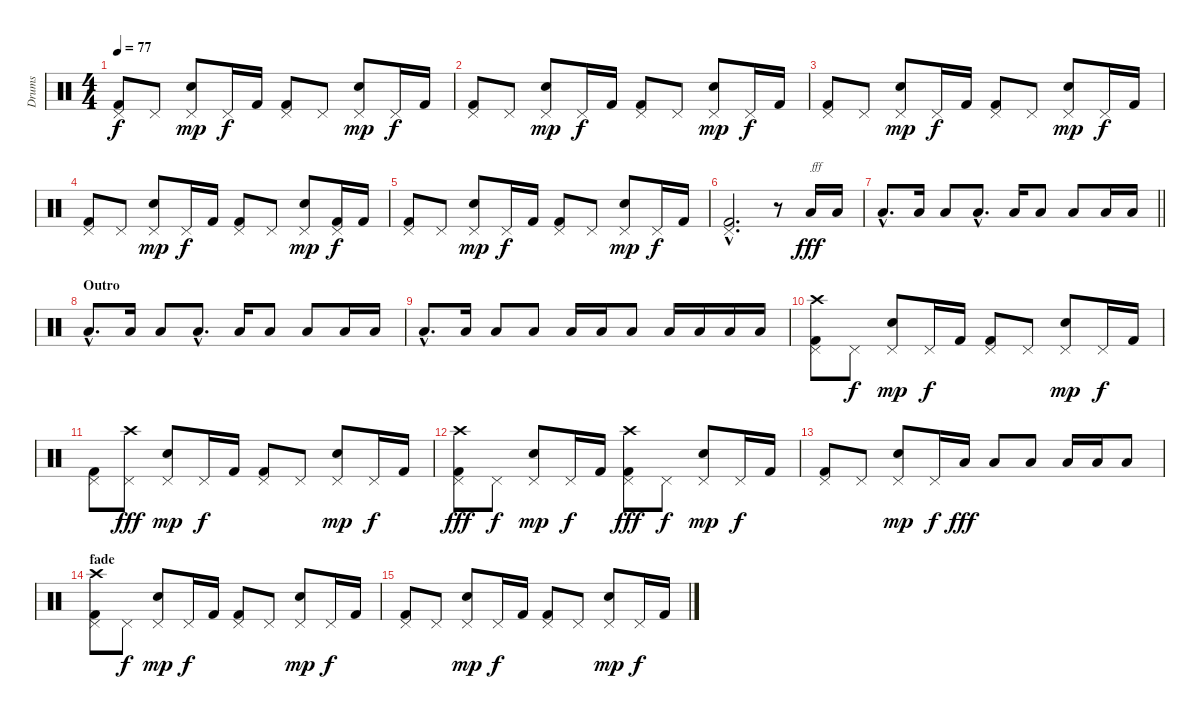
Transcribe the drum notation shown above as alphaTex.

\track ("Drums" "Drums") {instrument percussion}
\staff {score}
\articulation defaults
\ts (4 4)
\tempo 77
\clef neutral
\ks c
("Pedal Hi-Hat (hit)" "Kick (hit) 2").8{dy f} "Pedal Hi-Hat (hit)".8 ("Pedal Hi-Hat (hit)" "Snare (hit) 2").8{dy mp} "Pedal Hi-Hat (hit)".16{dy f} "Kick (hit) 2".16 ("Pedal Hi-Hat (hit)" "Kick (hit) 2").8 "Pedal Hi-Hat (hit)".8 ("Pedal Hi-Hat (hit)" "Snare (hit) 2").8{dy mp} "Pedal Hi-Hat (hit)".16{dy f} "Kick (hit) 2".16 |
("Pedal Hi-Hat (hit)" "Kick (hit) 2").8 "Pedal Hi-Hat (hit)".8 ("Pedal Hi-Hat (hit)" "Snare (hit) 2").8{dy mp} "Pedal Hi-Hat (hit)".16{dy f} "Kick (hit) 2".16 ("Pedal Hi-Hat (hit)" "Kick (hit) 2").8 "Pedal Hi-Hat (hit)".8 ("Pedal Hi-Hat (hit)" "Snare (hit) 2").8{dy mp} "Pedal Hi-Hat (hit)".16{dy f} "Kick (hit) 2".16 |
("Pedal Hi-Hat (hit)" "Kick (hit) 2").8 "Pedal Hi-Hat (hit)".8 ("Pedal Hi-Hat (hit)" "Snare (hit) 2").8{dy mp} "Pedal Hi-Hat (hit)".16{dy f} "Kick (hit) 2".16 ("Pedal Hi-Hat (hit)" "Kick (hit) 2").8 "Pedal Hi-Hat (hit)".8 ("Pedal Hi-Hat (hit)" "Snare (hit) 2").8{dy mp} "Pedal Hi-Hat (hit)".16{dy f} "Kick (hit) 2".16 |
("Pedal Hi-Hat (hit)" "Kick (hit) 2").8 "Pedal Hi-Hat (hit)".8 ("Pedal Hi-Hat (hit)" "Snare (hit) 2").8{dy mp} "Pedal Hi-Hat (hit)".16{dy f} "Kick (hit) 2".16 ("Pedal Hi-Hat (hit)" "Kick (hit) 2").8 "Pedal Hi-Hat (hit)".8 ("Pedal Hi-Hat (hit)" "Snare (hit) 2").8{dy mp} ("Pedal Hi-Hat (hit)" "Kick (hit) 2").16{dy f} "Kick (hit) 2".16 |
("Pedal Hi-Hat (hit)" "Kick (hit) 2").8 "Pedal Hi-Hat (hit)".8 ("Pedal Hi-Hat (hit)" "Snare (hit) 2").8{dy mp} "Pedal Hi-Hat (hit)".16{dy f} "Kick (hit) 2".16 ("Pedal Hi-Hat (hit)" "Kick (hit) 2").8 "Pedal Hi-Hat (hit)".8 ("Pedal Hi-Hat (hit)" "Snare (hit) 2").8{dy mp} "Pedal Hi-Hat (hit)".16{dy f} "Kick (hit) 2".16 |
("Pedal Hi-Hat (hit)"{hac} "Kick (hit) 2"{hac}).2{d} r.8 "Low Floor Tom (hit)".16{txt "fff" dy fff volume 16} "Low Floor Tom (hit)".16 |
\barLineRight lightlight "Low Tom (hit)"{hac}.8{d} "Low Floor Tom (hit)".16 "Low Tom (hit)".8 "Low Floor Tom (hit)"{hac}.8{d} "Low Floor Tom (hit)".16 "Low Tom (hit)".8 "Low Floor Tom (hit)".8 "Low Floor Tom (hit)".16 "Low Floor Tom (hit)".16
|
\section ("" "Outro")
"Low Tom (hit)"{hac}.8{d} "Low Floor Tom (hit)".16 "Low Tom (hit)".8 "Low Floor Tom (hit)"{hac}.8{d} "Low Floor Tom (hit)".16 "Low Tom (hit)".8 "Low Floor Tom (hit)".8 "Low Floor Tom (hit)".16 "Low Floor Tom (hit)".16 |
"Low Tom (hit)"{hac}.8{d} "Low Floor Tom (hit)".16 "Low Tom (hit)".8 "Low Floor Tom (hit)".8 "Low Floor Tom (hit)".16 "Low Floor Tom (hit)".16 "Low Tom (hit)".8 "Low Floor Tom (hit)".16 "Low Floor Tom (hit)".16 "Low Floor Tom (hit)".16 "Low Floor Tom (hit)".16 |
("Crash high (hit)" "Pedal Hi-Hat (hit)" "Kick (hit) 2").8 "Pedal Hi-Hat (hit)".8{dy f} ("Pedal Hi-Hat (hit)" "Snare (hit) 2").8{dy mp} "Pedal Hi-Hat (hit)".16{dy f} "Kick (hit) 2".16 ("Pedal Hi-Hat (hit)" "Kick (hit) 2").8 "Pedal Hi-Hat (hit)".8 ("Pedal Hi-Hat (hit)" "Snare (hit) 2").8{dy mp} "Pedal Hi-Hat (hit)".16{dy f} "Kick (hit) 2".16 |
("Pedal Hi-Hat (hit)" "Kick (hit) 2").8 ("Crash high (hit)" "Pedal Hi-Hat (hit)").8{dy fff} ("Pedal Hi-Hat (hit)" "Snare (hit) 2").8{dy mp} "Pedal Hi-Hat (hit)".16{dy f} "Kick (hit) 2".16 ("Pedal Hi-Hat (hit)" "Kick (hit) 2").8 "Pedal Hi-Hat (hit)".8 ("Pedal Hi-Hat (hit)" "Snare (hit) 2").8{dy mp} "Pedal Hi-Hat (hit)".16{dy f} "Kick (hit) 2".16 |
("Crash high (hit)" "Pedal Hi-Hat (hit)" "Kick (hit) 2").8{dy fff} "Pedal Hi-Hat (hit)".8{dy f} ("Pedal Hi-Hat (hit)" "Snare (hit) 2").8{dy mp} "Pedal Hi-Hat (hit)".16{dy f} "Kick (hit) 2".16 ("Crash high (hit)" "Pedal Hi-Hat (hit)" "Kick (hit) 2").8{dy fff} "Pedal Hi-Hat (hit)".8{dy f} ("Pedal Hi-Hat (hit)" "Snare (hit) 2").8{dy mp} "Pedal Hi-Hat (hit)".16{dy f} "Kick (hit) 2".16 |
("Pedal Hi-Hat (hit)" "Kick (hit) 2").8 "Pedal Hi-Hat (hit)".8 ("Pedal Hi-Hat (hit)" "Snare (hit) 2").8{dy mp} "Pedal Hi-Hat (hit)".16{dy f} "Low Tom (hit)".16{dy fff} "Low Tom (hit)".8 "Low Floor Tom (hit)".8 "Low Floor Tom (hit)".16 "Low Floor Tom (hit)".16 "Low Floor Tom (hit)".8 |
\section ("" "fade")
("Crash high (hit)" "Pedal Hi-Hat (hit)" "Kick (hit) 2").8{volume 0} "Pedal Hi-Hat (hit)".8{dy f} ("Pedal Hi-Hat (hit)" "Snare (hit) 2").8{dy mp} "Pedal Hi-Hat (hit)".16{dy f} "Kick (hit) 2".16 ("Pedal Hi-Hat (hit)" "Kick (hit) 2").8 "Pedal Hi-Hat (hit)".8 ("Pedal Hi-Hat (hit)" "Snare (hit) 2").8{dy mp} "Pedal Hi-Hat (hit)".16{dy f} "Kick (hit) 2".16 |
("Pedal Hi-Hat (hit)" "Kick (hit) 2").8 "Pedal Hi-Hat (hit)".8 ("Pedal Hi-Hat (hit)" "Snare (hit) 2").8{dy mp} "Pedal Hi-Hat (hit)".16{dy f} "Kick (hit) 2".16 ("Pedal Hi-Hat (hit)" "Kick (hit) 2").8 "Pedal Hi-Hat (hit)".8 ("Pedal Hi-Hat (hit)" "Snare (hit) 2").8{dy mp} "Pedal Hi-Hat (hit)".16{dy f} "Kick (hit) 2".16
